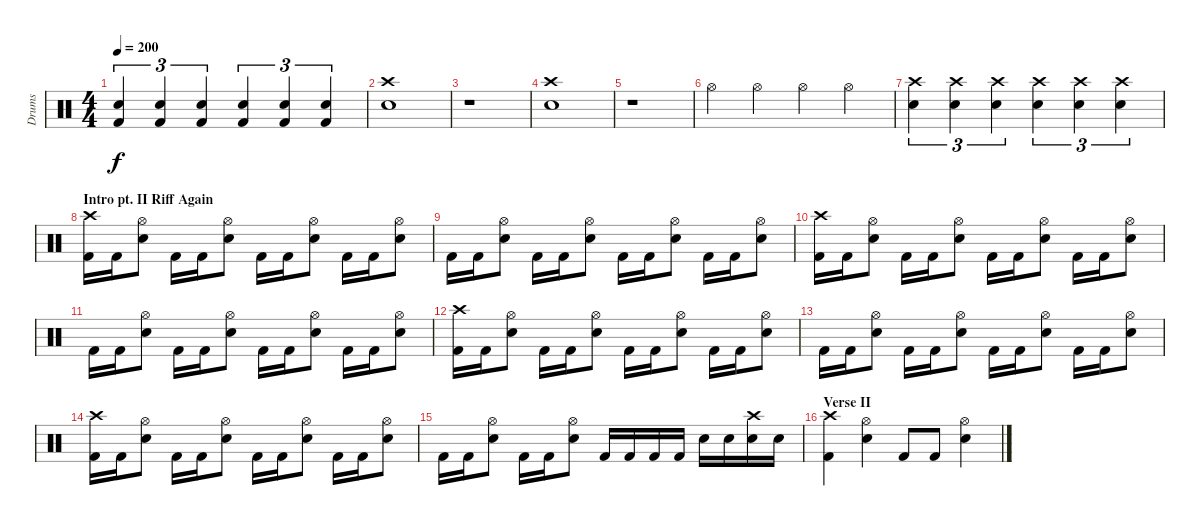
\track ("Drums" "Drums") {instrument percussion}
\staff {score}
\articulation defaults
\ts (4 4)
\tempo 200
\clef neutral
\ks c
("Snare (hit) 2" "Kick (hit) 2").4{tu (3 2) dy f} ("Snare (hit) 2" "Kick (hit) 2").4{tu (3 2)} ("Snare (hit) 2" "Kick (hit) 2").4{tu (3 2)} ("Snare (hit) 2" "Kick (hit) 2").4{tu (3 2)} ("Snare (hit) 2" "Kick (hit) 2").4{tu (3 2)} ("Snare (hit) 2" "Kick (hit) 2").4{tu (3 2)} |
("Crash high (hit)" "Snare (hit) 2").1 |
r.1 |
("Crash high (hit)" "Snare (hit) 2").1 |
r.1 |
"Hi-Hat (open)".4 "Hi-Hat (open)".4 "Hi-Hat (open)".4 "Hi-Hat (open)".4 |
("Crash high (hit)" "Snare (hit) 2").4{tu (3 2)} ("Crash high (hit)" "Snare (hit) 2").4{tu (3 2)} ("Crash high (hit)" "Snare (hit) 2").4{tu (3 2)} ("Crash high (hit)" "Snare (hit) 2").4{tu (3 2)} ("Crash high (hit)" "Snare (hit) 2").4{tu (3 2)} ("Crash high (hit)" "Snare (hit) 2").4{tu (3 2)} |
\section ("" "Intro pt. II Riff Again")
("Crash high (hit)" "Kick (hit) 2").16 "Kick (hit) 2".16 ("Hi-Hat (open)" "Snare (hit) 2").8 "Kick (hit) 2".16 "Kick (hit) 2".16 ("Hi-Hat (open)" "Snare (hit) 2").8 "Kick (hit) 2".16 "Kick (hit) 2".16 ("Hi-Hat (open)" "Snare (hit) 2").8 "Kick (hit) 2".16 "Kick (hit) 2".16 ("Hi-Hat (open)" "Snare (hit) 2").8 |
"Kick (hit) 2".16 "Kick (hit) 2".16 ("Hi-Hat (open)" "Snare (hit) 2").8 "Kick (hit) 2".16 "Kick (hit) 2".16 ("Hi-Hat (open)" "Snare (hit) 2").8 "Kick (hit) 2".16 "Kick (hit) 2".16 ("Hi-Hat (open)" "Snare (hit) 2").8 "Kick (hit) 2".16 "Kick (hit) 2".16 ("Hi-Hat (open)" "Snare (hit) 2").8 |
("Crash high (hit)" "Kick (hit) 2").16 "Kick (hit) 2".16 ("Hi-Hat (open)" "Snare (hit) 2").8 "Kick (hit) 2".16 "Kick (hit) 2".16 ("Hi-Hat (open)" "Snare (hit) 2").8 "Kick (hit) 2".16 "Kick (hit) 2".16 ("Hi-Hat (open)" "Snare (hit) 2").8 "Kick (hit) 2".16 "Kick (hit) 2".16 ("Hi-Hat (open)" "Snare (hit) 2").8 |
"Kick (hit) 2".16 "Kick (hit) 2".16 ("Hi-Hat (open)" "Snare (hit) 2").8 "Kick (hit) 2".16 "Kick (hit) 2".16 ("Hi-Hat (open)" "Snare (hit) 2").8 "Kick (hit) 2".16 "Kick (hit) 2".16 ("Hi-Hat (open)" "Snare (hit) 2").8 "Kick (hit) 2".16 "Kick (hit) 2".16 ("Hi-Hat (open)" "Snare (hit) 2").8 |
("Crash high (hit)" "Kick (hit) 2").16 "Kick (hit) 2".16 ("Hi-Hat (open)" "Snare (hit) 2").8 "Kick (hit) 2".16 "Kick (hit) 2".16 ("Hi-Hat (open)" "Snare (hit) 2").8 "Kick (hit) 2".16 "Kick (hit) 2".16 ("Hi-Hat (open)" "Snare (hit) 2").8 "Kick (hit) 2".16 "Kick (hit) 2".16 ("Hi-Hat (open)" "Snare (hit) 2").8 |
"Kick (hit) 2".16 "Kick (hit) 2".16 ("Hi-Hat (open)" "Snare (hit) 2").8 "Kick (hit) 2".16 "Kick (hit) 2".16 ("Hi-Hat (open)" "Snare (hit) 2").8 "Kick (hit) 2".16 "Kick (hit) 2".16 ("Hi-Hat (open)" "Snare (hit) 2").8 "Kick (hit) 2".16 "Kick (hit) 2".16 ("Hi-Hat (open)" "Snare (hit) 2").8 |
("Crash high (hit)" "Kick (hit) 2").16 "Kick (hit) 2".16 ("Hi-Hat (open)" "Snare (hit) 2").8 "Kick (hit) 2".16 "Kick (hit) 2".16 ("Hi-Hat (open)" "Snare (hit) 2").8 "Kick (hit) 2".16 "Kick (hit) 2".16 ("Hi-Hat (open)" "Snare (hit) 2").8 "Kick (hit) 2".16 "Kick (hit) 2".16 ("Hi-Hat (open)" "Snare (hit) 2").8 |
"Kick (hit) 2".16 "Kick (hit) 2".16 ("Hi-Hat (open)" "Snare (hit) 2").8 "Kick (hit) 2".16 "Kick (hit) 2".16 ("Hi-Hat (open)" "Snare (hit) 2").8 "Kick (hit) 2".16 "Kick (hit) 2".16 "Kick (hit) 2".16 "Kick (hit) 2".16 "Snare (hit) 2".16 "Snare (hit) 2".16 ("Crash high (hit)" "Snare (hit) 2").16 "Snare (hit) 2".16 |
\section ("" "Verse II")
("Crash high (hit)" "Kick (hit) 2").4 ("Hi-Hat (open)" "Snare (hit) 2").4 "Kick (hit) 2".8 "Kick (hit) 2".8 ("Hi-Hat (open)" "Snare (hit) 2").4
